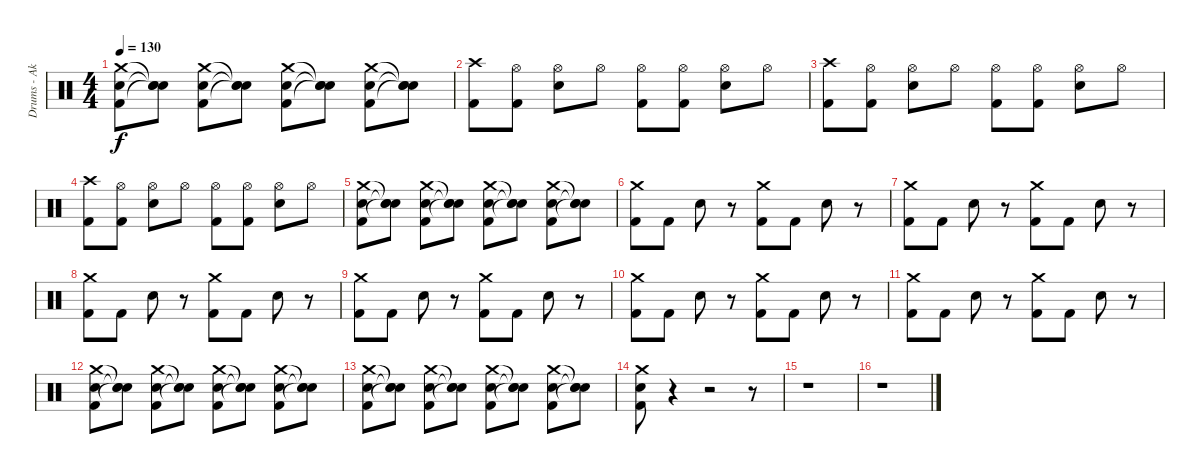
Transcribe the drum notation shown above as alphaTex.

\track ("Drums - Aki Hakala/Janne" "Drums - Ak") {instrument percussion}
\staff {score}
\articulation defaults
\ts (4 4)
\tempo 130
\clef neutral
\ks c
("Crash medium (hit)" "Electric Snare (hit)" "Kick (hit) 2").8{dy f} ("Snare (hit)"{t} "Electric Snare (hit)"{t} "Snare (hit)"{t}).8 ("Crash medium (hit)" "Electric Snare (hit)" "Kick (hit) 2").8 ("Snare (hit)"{t} "Snare (hit)"{t} "Snare (hit)"{t}).8 ("Crash medium (hit)" "Electric Snare (hit)" "Kick (hit) 2").8 ("Snare (hit)"{t} "Snare (hit)"{t} "Snare (hit)"{t}).8 ("Crash medium (hit)" "Electric Snare (hit)" "Kick (hit) 2").8 ("Snare (hit)"{t} "Snare (hit)"{t} "Snare (hit)"{t}).8 |
("Crash high (hit)" "Kick (hit) 2").8 ("Hi-Hat (open)" "Kick (hit) 2").8 ("Hi-Hat (open)" "Electric Snare (hit)").8 "Hi-Hat (open)".8 ("Hi-Hat (open)" "Kick (hit) 2").8 ("Hi-Hat (open)" "Kick (hit) 2").8 ("Hi-Hat (open)" "Electric Snare (hit)").8 "Hi-Hat (open)".8 |
("Crash high (hit)" "Kick (hit) 2").8 ("Hi-Hat (open)" "Kick (hit) 2").8 ("Hi-Hat (open)" "Electric Snare (hit)").8 "Hi-Hat (open)".8 ("Hi-Hat (open)" "Kick (hit) 2").8 ("Hi-Hat (open)" "Kick (hit) 2").8 ("Hi-Hat (open)" "Electric Snare (hit)").8 "Hi-Hat (open)".8 |
("Crash high (hit)" "Kick (hit) 2").8 ("Hi-Hat (open)" "Kick (hit) 2").8 ("Hi-Hat (open)" "Electric Snare (hit)").8 "Hi-Hat (open)".8 ("Hi-Hat (open)" "Kick (hit) 2").8 ("Hi-Hat (open)" "Kick (hit) 2").8 ("Hi-Hat (open)" "Electric Snare (hit)").8 "Hi-Hat (open)".8 |
("Crash medium (hit)" "Electric Snare (hit)" "Kick (hit) 2").8 ("Snare (hit)"{t} "Electric Snare (hit)"{t} "Snare (hit)"{t}).8 ("Crash medium (hit)" "Electric Snare (hit)" "Kick (hit) 2").8 ("Snare (hit)"{t} "Snare (hit)"{t} "Snare (hit)"{t}).8 ("Crash medium (hit)" "Electric Snare (hit)" "Kick (hit) 2").8 ("Snare (hit)"{t} "Snare (hit)"{t} "Snare (hit)"{t}).8 ("Crash medium (hit)" "Electric Snare (hit)" "Kick (hit) 2").8 ("Snare (hit)"{t} "Snare (hit)"{t} "Snare (hit)"{t}).8 |
("Crash medium (hit)" "Kick (hit) 2").8 "Kick (hit) 2".8 "Electric Snare (hit)".8 r.8 ("Crash medium (hit)" "Kick (hit) 2").8 "Kick (hit) 2".8 "Electric Snare (hit)".8 r.8 |
("Crash medium (hit)" "Kick (hit) 2").8 "Kick (hit) 2".8 "Electric Snare (hit)".8 r.8 ("Crash medium (hit)" "Kick (hit) 2").8 "Kick (hit) 2".8 "Electric Snare (hit)".8 r.8 |
("Crash medium (hit)" "Kick (hit) 2").8 "Kick (hit) 2".8 "Electric Snare (hit)".8 r.8 ("Crash medium (hit)" "Kick (hit) 2").8 "Kick (hit) 2".8 "Electric Snare (hit)".8 r.8 |
("Crash medium (hit)" "Kick (hit) 2").8 "Kick (hit) 2".8 "Electric Snare (hit)".8 r.8 ("Crash medium (hit)" "Kick (hit) 2").8 "Kick (hit) 2".8 "Electric Snare (hit)".8 r.8 |
("Crash medium (hit)" "Kick (hit) 2").8 "Kick (hit) 2".8 "Electric Snare (hit)".8 r.8 ("Crash medium (hit)" "Kick (hit) 2").8 "Kick (hit) 2".8 "Electric Snare (hit)".8 r.8 |
("Crash medium (hit)" "Kick (hit) 2").8 "Kick (hit) 2".8 "Electric Snare (hit)".8 r.8 ("Crash medium (hit)" "Kick (hit) 2").8 "Kick (hit) 2".8 "Electric Snare (hit)".8 r.8 |
("Crash medium (hit)" "Electric Snare (hit)" "Kick (hit) 2").8 ("Snare (hit)"{t} "Electric Snare (hit)"{t} "Snare (hit)"{t}).8 ("Crash medium (hit)" "Electric Snare (hit)" "Kick (hit) 2").8 ("Snare (hit)"{t} "Snare (hit)"{t} "Snare (hit)"{t}).8 ("Crash medium (hit)" "Electric Snare (hit)" "Kick (hit) 2").8 ("Snare (hit)"{t} "Snare (hit)"{t} "Snare (hit)"{t}).8 ("Crash medium (hit)" "Electric Snare (hit)" "Kick (hit) 2").8 ("Snare (hit)"{t} "Snare (hit)"{t} "Snare (hit)"{t}).8 |
("Crash medium (hit)" "Electric Snare (hit)" "Kick (hit) 2").8 ("Snare (hit)"{t} "Electric Snare (hit)"{t} "Snare (hit)"{t}).8 ("Crash medium (hit)" "Electric Snare (hit)" "Kick (hit) 2").8 ("Snare (hit)"{t} "Snare (hit)"{t} "Snare (hit)"{t}).8 ("Crash medium (hit)" "Electric Snare (hit)" "Kick (hit) 2").8 ("Snare (hit)"{t} "Snare (hit)"{t} "Snare (hit)"{t}).8 ("Crash medium (hit)" "Electric Snare (hit)" "Kick (hit) 2").8 ("Snare (hit)"{t} "Snare (hit)"{t} "Snare (hit)"{t}).8 |
("Crash medium (hit)" "Electric Snare (hit)" "Kick (hit) 2").8 r.4 r.2 r.8 |
r.1 |
r.1
